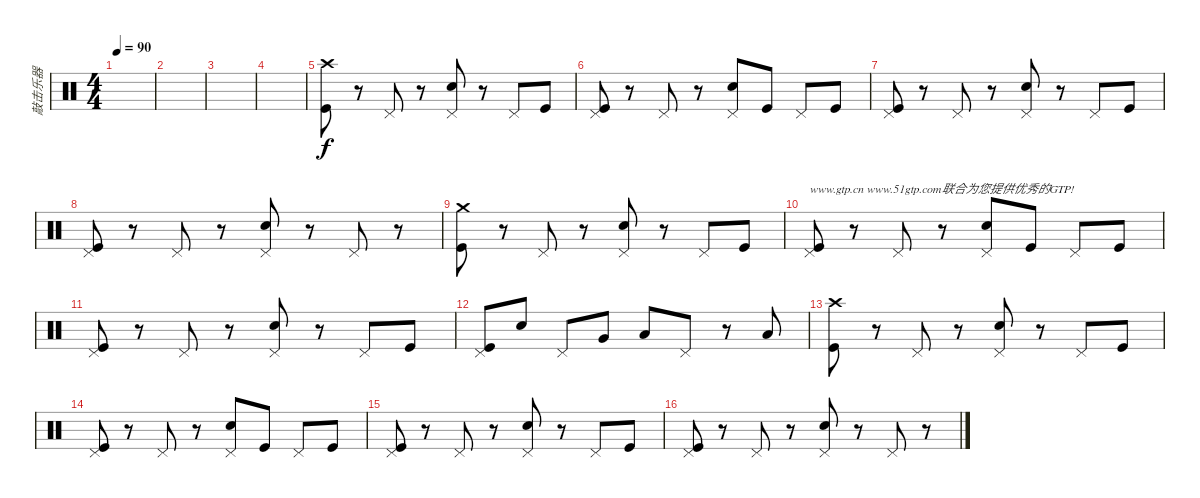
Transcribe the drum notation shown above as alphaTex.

\track ("敲击乐器" "敲击乐器") {instrument percussion}
\staff {score}
\articulation defaults
\ts (4 4)
\tempo 90
\clef neutral
\ks c
|
|
|
|
("Crash high (hit)" "Kick (hit)").8 r.8 "Pedal Hi-Hat (hit)".8 r.8 ("Pedal Hi-Hat (hit)" "Electric Snare (hit)").8 r.8 "Pedal Hi-Hat (hit)".8 "Kick (hit)".8 |
("Pedal Hi-Hat (hit)" "Kick (hit)").8 r.8 "Pedal Hi-Hat (hit)".8 r.8 ("Pedal Hi-Hat (hit)" "Electric Snare (hit)").8 "Kick (hit)".8 "Pedal Hi-Hat (hit)".8 "Kick (hit)".8 |
("Pedal Hi-Hat (hit)" "Kick (hit)").8 r.8 "Pedal Hi-Hat (hit)".8 r.8 ("Pedal Hi-Hat (hit)" "Electric Snare (hit)").8 r.8 "Pedal Hi-Hat (hit)".8 "Kick (hit)".8 |
("Pedal Hi-Hat (hit)" "Kick (hit)").8 r.8 "Pedal Hi-Hat (hit)".8 r.8 ("Pedal Hi-Hat (hit)" "Electric Snare (hit)").8 r.8 "Pedal Hi-Hat (hit)".8 r.8 |
("Crash medium (hit)" "Kick (hit)").8 r.8 "Pedal Hi-Hat (hit)".8 r.8 ("Pedal Hi-Hat (hit)" "Electric Snare (hit)").8 r.8 "Pedal Hi-Hat (hit)".8 "Kick (hit)".8 |
("Pedal Hi-Hat (hit)" "Kick (hit)").8{txt "www.gtp.cn www.51gtp.com联合为您提供优秀的GTP!"} r.8 "Pedal Hi-Hat (hit)".8 r.8 ("Pedal Hi-Hat (hit)" "Electric Snare (hit)").8 "Kick (hit)".8 "Pedal Hi-Hat (hit)".8 "Kick (hit)".8 |
("Pedal Hi-Hat (hit)" "Kick (hit)").8 r.8 "Pedal Hi-Hat (hit)".8 r.8 ("Pedal Hi-Hat (hit)" "Electric Snare (hit)").8 r.8 "Pedal Hi-Hat (hit)".8 "Kick (hit)".8 |
("Pedal Hi-Hat (hit)" "Kick (hit)").8 "Electric Snare (hit)".8 "Pedal Hi-Hat (hit)".8 "Very Low Tom (hit)".8 "Low Tom (hit)".8 "Pedal Hi-Hat (hit)".8 r.8 "Low Floor Tom (hit)".8 |
("Crash high (hit)" "Kick (hit)").8 r.8 "Pedal Hi-Hat (hit)".8 r.8 ("Pedal Hi-Hat (hit)" "Electric Snare (hit)").8 r.8 "Pedal Hi-Hat (hit)".8 "Kick (hit)".8 |
("Pedal Hi-Hat (hit)" "Kick (hit)").8 r.8 "Pedal Hi-Hat (hit)".8 r.8 ("Pedal Hi-Hat (hit)" "Electric Snare (hit)").8 "Kick (hit)".8 "Pedal Hi-Hat (hit)".8 "Kick (hit)".8 |
("Pedal Hi-Hat (hit)" "Kick (hit)").8 r.8 "Pedal Hi-Hat (hit)".8 r.8 ("Pedal Hi-Hat (hit)" "Electric Snare (hit)").8 r.8 "Pedal Hi-Hat (hit)".8 "Kick (hit)".8 |
("Pedal Hi-Hat (hit)" "Kick (hit)").8 r.8 "Pedal Hi-Hat (hit)".8 r.8 ("Pedal Hi-Hat (hit)" "Electric Snare (hit)").8 r.8 "Pedal Hi-Hat (hit)".8 r.8
